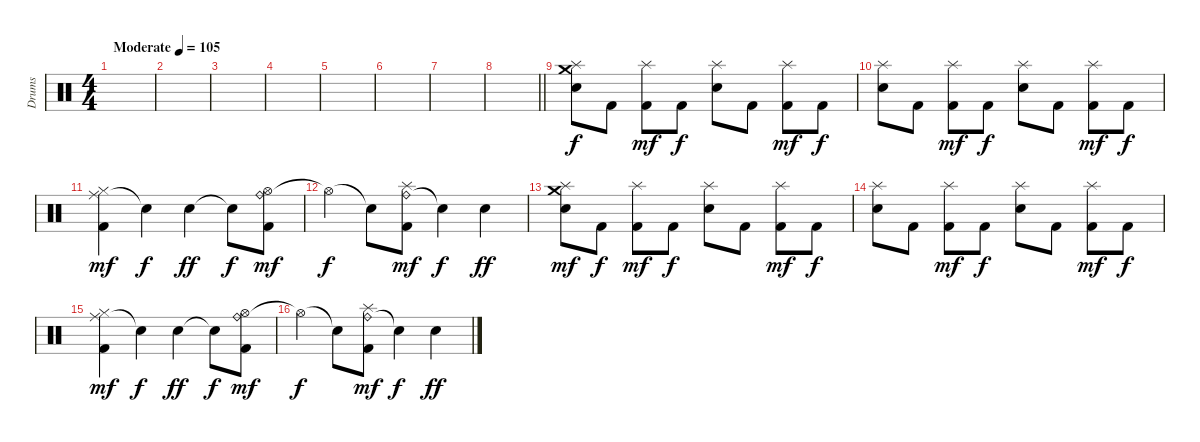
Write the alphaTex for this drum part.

\track ("Drums" "Drums") {instrument percussion}
\staff {score}
\articulation defaults
\ts (4 4)
\tempo (105 "Moderate")
\clef neutral
\ks c
|
|
|
|
|
|
|
\barLineRight lightlight
|
\section ("" "")
("Crash medium (hit)" "Splash (hit)" "Snare (hit) 2").8 "Kick (hit) 2".8{dy f} ("Splash (hit)" "Kick (hit) 2").8{dy mf} "Kick (hit) 2".8{dy f} ("Splash (hit)" "Snare (hit) 2").8 "Kick (hit) 2".8 ("Splash (hit)" "Kick (hit) 2").8{dy mf} "Kick (hit) 2".8{dy f} |
("Splash (hit)" "Snare (hit) 2").8 "Kick (hit) 2".8 ("Splash (hit)" "Kick (hit) 2").8{dy mf} "Kick (hit) 2".8{dy f} ("Splash (hit)" "Snare (hit) 2").8 "Kick (hit) 2".8 ("Splash (hit)" "Kick (hit) 2").8{dy mf} "Kick (hit) 2".8{dy f} |
("Ride (middle)" "Hi-Hat (closed)" "Kick (hit) 2").4{dy mf} "Snare (hit)"{t}.4{dy f} "Snare (hit) 2".4{dy ff} "Snare (hit)"{t}.8{dy f} ("Ride (bell)" "Hi-Hat (open)" "Kick (hit) 2").8{dy mf} |
"Hi-Hat (open)"{t}.4{dy f} "Snare (hit)"{t}.8 ("Ride (bell)" "Splash (hit)" "Kick (hit) 2").8{dy mf} "Snare (hit)"{t}.4{dy f} "Snare (hit) 2".4{dy ff} |
("Crash medium (hit)" "Splash (hit)" "Snare (hit) 2").8{dy mf} "Kick (hit) 2".8{dy f} ("Splash (hit)" "Kick (hit) 2").8{dy mf} "Kick (hit) 2".8{dy f} ("Splash (hit)" "Snare (hit) 2").8 "Kick (hit) 2".8 ("Splash (hit)" "Kick (hit) 2").8{dy mf} "Kick (hit) 2".8{dy f} |
("Splash (hit)" "Snare (hit) 2").8 "Kick (hit) 2".8 ("Splash (hit)" "Kick (hit) 2").8{dy mf} "Kick (hit) 2".8{dy f} ("Splash (hit)" "Snare (hit) 2").8 "Kick (hit) 2".8 ("Splash (hit)" "Kick (hit) 2").8{dy mf} "Kick (hit) 2".8{dy f} |
("Ride (middle)" "Hi-Hat (closed)" "Kick (hit) 2").4{dy mf} "Snare (hit)"{t}.4{dy f} "Snare (hit) 2".4{dy ff} "Snare (hit)"{t}.8{dy f} ("Ride (bell)" "Hi-Hat (open)" "Kick (hit) 2").8{dy mf} |
"Hi-Hat (open)"{t}.4{dy f} "Snare (hit)"{t}.8 ("Ride (bell)" "Splash (hit)" "Kick (hit) 2").8{dy mf} "Snare (hit)"{t}.4{dy f} "Snare (hit) 2".4{dy ff}
